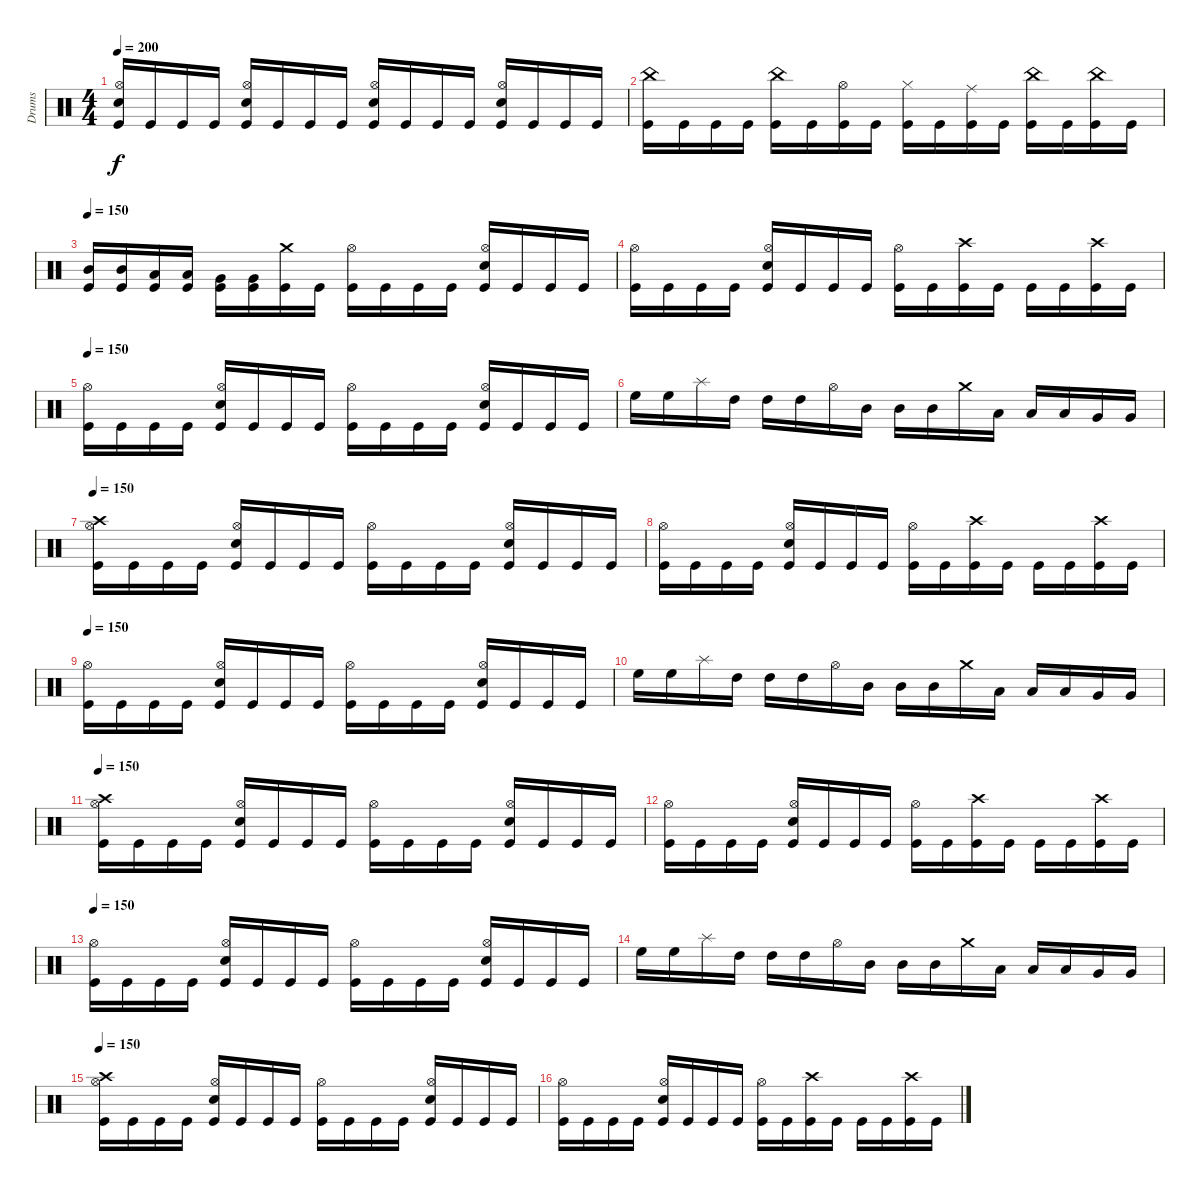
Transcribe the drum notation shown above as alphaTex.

\track ("Drums" "Drums") {instrument percussion}
\staff {score}
\articulation defaults
\ts (4 4)
\tempo 200
\clef neutral
\ks c
("Electric Snare (hit)" "Hi-Hat (open)" "Kick (hit)").16{dy f} "Kick (hit)".16 "Kick (hit)".16 "Kick (hit)".16 ("Electric Snare (hit)" "Hi-Hat (open)" "Kick (hit)").16 "Kick (hit)".16 "Kick (hit)".16 "Kick (hit)".16 ("Electric Snare (hit)" "Hi-Hat (open)" "Kick (hit)").16 "Kick (hit)".16 "Kick (hit)".16 "Kick (hit)".16 ("Electric Snare (hit)" "Hi-Hat (open)" "Kick (hit)").16 "Kick (hit)".16 "Kick (hit)".16 "Kick (hit)".16 |
("China (hit)" "Kick (hit)").16 "Kick (hit)".16 "Kick (hit)".16 "Kick (hit)".16 ("China (hit)" "Kick (hit)").16 "Kick (hit)".16 ("Hi-Hat (open)" "Kick (hit)").16 "Kick (hit)".16 ("Hi-Hat (closed)" "Kick (hit)").16 "Kick (hit)".16 ("Ride (middle)" "Kick (hit)").16 "Kick (hit)".16 ("China (hit)" "Kick (hit)").16 "Kick (hit)".16 ("China (hit)" "Kick (hit)").16 "Kick (hit)".16 |
\tempo 150
("Mid Tom (hit)" "Kick (hit)").16 ("Mid Tom (hit)" "Kick (hit)").16 ("Low Tom (hit)" "Kick (hit)").16 ("Low Tom (hit)" "Kick (hit)").16 ("Very Low Tom (hit)" "Kick (hit)").16 ("Very Low Tom (hit)" "Kick (hit)").16 ("Crash medium (hit)" "Kick (hit)").16 "Kick (hit)".16 ("Hi-Hat (open)" "Kick (hit)").16 "Kick (hit)".16 "Kick (hit)".16 "Kick (hit)".16 ("Hi-Hat (open)" "Electric Snare (hit)" "Kick (hit)").16 "Kick (hit)".16 "Kick (hit)".16 "Kick (hit)".16 |
("Hi-Hat (open)" "Kick (hit)").16 "Kick (hit)".16 "Kick (hit)".16 "Kick (hit)".16 ("Hi-Hat (open)" "Electric Snare (hit)" "Kick (hit)").16 "Kick (hit)".16 "Kick (hit)".16 "Kick (hit)".16 ("Hi-Hat (open)" "Kick (hit)").16 "Kick (hit)".16 ("Kick (hit)" "Crash high (hit)").16 "Kick (hit)".16 "Kick (hit)".16 "Kick (hit)".16 ("Kick (hit)" "Crash high (hit)").16 "Kick (hit)".16 |
\tempo 150
("Hi-Hat (open)" "Kick (hit)").16 "Kick (hit)".16 "Kick (hit)".16 "Kick (hit)".16 ("Hi-Hat (open)" "Electric Snare (hit)" "Kick (hit)").16 "Kick (hit)".16 "Kick (hit)".16 "Kick (hit)".16 ("Hi-Hat (open)" "Kick (hit)").16 "Kick (hit)".16 "Kick (hit)".16 "Kick (hit)".16 ("Hi-Hat (open)" "Electric Snare (hit)" "Kick (hit)").16 "Kick (hit)".16 "Kick (hit)".16 "Kick (hit)".16 |
"High Floor Tom (hit)".16 "High Floor Tom (hit)".16 "Splash (hit)".16 "High Tom (hit)".16 "High Tom (hit)".16 "High Tom (hit)".16 "Hi-Hat (open)".16 "Mid Tom (hit)".16 "Mid Tom (hit)".16 "Mid Tom (hit)".16 "Crash medium (hit)".16 "Low Tom (hit)".16 "Low Tom (hit)".16 "Low Tom (hit)".16 "Very Low Tom (hit)".16 "Very Low Tom (hit)".16 |
\tempo 150
("Crash high (hit)" "Hi-Hat (open)" "Kick (hit)").16 "Kick (hit)".16 "Kick (hit)".16 "Kick (hit)".16 ("Hi-Hat (open)" "Electric Snare (hit)" "Kick (hit)").16 "Kick (hit)".16 "Kick (hit)".16 "Kick (hit)".16 ("Hi-Hat (open)" "Kick (hit)").16 "Kick (hit)".16 "Kick (hit)".16 "Kick (hit)".16 ("Hi-Hat (open)" "Electric Snare (hit)" "Kick (hit)").16 "Kick (hit)".16 "Kick (hit)".16 "Kick (hit)".16 |
("Hi-Hat (open)" "Kick (hit)").16 "Kick (hit)".16 "Kick (hit)".16 "Kick (hit)".16 ("Hi-Hat (open)" "Electric Snare (hit)" "Kick (hit)").16 "Kick (hit)".16 "Kick (hit)".16 "Kick (hit)".16 ("Hi-Hat (open)" "Kick (hit)").16 "Kick (hit)".16 ("Kick (hit)" "Crash high (hit)").16 "Kick (hit)".16 "Kick (hit)".16 "Kick (hit)".16 ("Kick (hit)" "Crash high (hit)").16 "Kick (hit)".16 |
\tempo 150
("Hi-Hat (open)" "Kick (hit)").16 "Kick (hit)".16 "Kick (hit)".16 "Kick (hit)".16 ("Hi-Hat (open)" "Electric Snare (hit)" "Kick (hit)").16 "Kick (hit)".16 "Kick (hit)".16 "Kick (hit)".16 ("Hi-Hat (open)" "Kick (hit)").16 "Kick (hit)".16 "Kick (hit)".16 "Kick (hit)".16 ("Hi-Hat (open)" "Electric Snare (hit)" "Kick (hit)").16 "Kick (hit)".16 "Kick (hit)".16 "Kick (hit)".16 |
"High Floor Tom (hit)".16 "High Floor Tom (hit)".16 "Splash (hit)".16 "High Tom (hit)".16 "High Tom (hit)".16 "High Tom (hit)".16 "Hi-Hat (open)".16 "Mid Tom (hit)".16 "Mid Tom (hit)".16 "Mid Tom (hit)".16 "Crash medium (hit)".16 "Low Tom (hit)".16 "Low Tom (hit)".16 "Low Tom (hit)".16 "Very Low Tom (hit)".16 "Very Low Tom (hit)".16 |
\tempo 150
("Crash high (hit)" "Hi-Hat (open)" "Kick (hit)").16 "Kick (hit)".16 "Kick (hit)".16 "Kick (hit)".16 ("Hi-Hat (open)" "Electric Snare (hit)" "Kick (hit)").16 "Kick (hit)".16 "Kick (hit)".16 "Kick (hit)".16 ("Hi-Hat (open)" "Kick (hit)").16 "Kick (hit)".16 "Kick (hit)".16 "Kick (hit)".16 ("Hi-Hat (open)" "Electric Snare (hit)" "Kick (hit)").16 "Kick (hit)".16 "Kick (hit)".16 "Kick (hit)".16 |
("Hi-Hat (open)" "Kick (hit)").16 "Kick (hit)".16 "Kick (hit)".16 "Kick (hit)".16 ("Hi-Hat (open)" "Electric Snare (hit)" "Kick (hit)").16 "Kick (hit)".16 "Kick (hit)".16 "Kick (hit)".16 ("Hi-Hat (open)" "Kick (hit)").16 "Kick (hit)".16 ("Kick (hit)" "Crash high (hit)").16 "Kick (hit)".16 "Kick (hit)".16 "Kick (hit)".16 ("Kick (hit)" "Crash high (hit)").16 "Kick (hit)".16 |
\tempo 150
("Hi-Hat (open)" "Kick (hit)").16 "Kick (hit)".16 "Kick (hit)".16 "Kick (hit)".16 ("Hi-Hat (open)" "Electric Snare (hit)" "Kick (hit)").16 "Kick (hit)".16 "Kick (hit)".16 "Kick (hit)".16 ("Hi-Hat (open)" "Kick (hit)").16 "Kick (hit)".16 "Kick (hit)".16 "Kick (hit)".16 ("Hi-Hat (open)" "Electric Snare (hit)" "Kick (hit)").16 "Kick (hit)".16 "Kick (hit)".16 "Kick (hit)".16 |
"High Floor Tom (hit)".16 "High Floor Tom (hit)".16 "Splash (hit)".16 "High Tom (hit)".16 "High Tom (hit)".16 "High Tom (hit)".16 "Hi-Hat (open)".16 "Mid Tom (hit)".16 "Mid Tom (hit)".16 "Mid Tom (hit)".16 "Crash medium (hit)".16 "Low Tom (hit)".16 "Low Tom (hit)".16 "Low Tom (hit)".16 "Very Low Tom (hit)".16 "Very Low Tom (hit)".16 |
\tempo 150
("Crash high (hit)" "Hi-Hat (open)" "Kick (hit)").16 "Kick (hit)".16 "Kick (hit)".16 "Kick (hit)".16 ("Hi-Hat (open)" "Electric Snare (hit)" "Kick (hit)").16 "Kick (hit)".16 "Kick (hit)".16 "Kick (hit)".16 ("Hi-Hat (open)" "Kick (hit)").16 "Kick (hit)".16 "Kick (hit)".16 "Kick (hit)".16 ("Hi-Hat (open)" "Electric Snare (hit)" "Kick (hit)").16 "Kick (hit)".16 "Kick (hit)".16 "Kick (hit)".16 |
("Hi-Hat (open)" "Kick (hit)").16 "Kick (hit)".16 "Kick (hit)".16 "Kick (hit)".16 ("Hi-Hat (open)" "Electric Snare (hit)" "Kick (hit)").16 "Kick (hit)".16 "Kick (hit)".16 "Kick (hit)".16 ("Hi-Hat (open)" "Kick (hit)").16 "Kick (hit)".16 ("Kick (hit)" "Crash high (hit)").16 "Kick (hit)".16 "Kick (hit)".16 "Kick (hit)".16 ("Kick (hit)" "Crash high (hit)").16 "Kick (hit)".16
